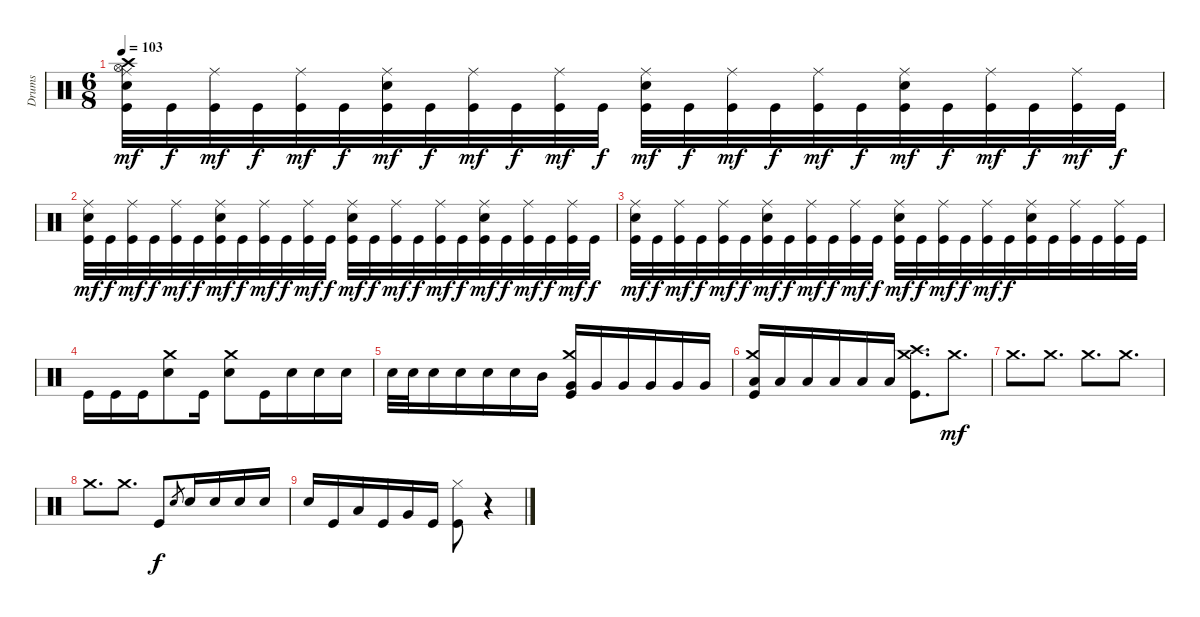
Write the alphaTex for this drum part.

\track ("Drums" "Drums") {instrument percussion}
\staff {score}
\articulation defaults
\ts (6 8)
\tempo 103
\clef neutral
\ks c
("Crash high (hit)" "Hi-Hat (open)" "Ride (middle)" "Electric Snare (hit)" "Kick (hit)").32{dy mf} "Kick (hit)".32{dy f} ("Ride (middle)" "Kick (hit)").32{dy mf} "Kick (hit)".32{dy f} ("Ride (middle)" "Kick (hit)").32{dy mf} "Kick (hit)".32{dy f} ("Ride (middle)" "Electric Snare (hit)" "Kick (hit)").32{dy mf} "Kick (hit)".32{dy f} ("Ride (middle)" "Kick (hit)").32{dy mf} "Kick (hit)".32{dy f} ("Ride (middle)" "Kick (hit)").32{dy mf} "Kick (hit)".32{dy f} ("Ride (middle)" "Electric Snare (hit)" "Kick (hit)").32{dy mf} "Kick (hit)".32{dy f} ("Ride (middle)" "Kick (hit)").32{dy mf} "Kick (hit)".32{dy f} ("Ride (middle)" "Kick (hit)").32{dy mf} "Kick (hit)".32{dy f} ("Ride (middle)" "Electric Snare (hit)" "Kick (hit)").32{dy mf} "Kick (hit)".32{dy f} ("Ride (middle)" "Kick (hit)").32{dy mf} "Kick (hit)".32{dy f} ("Ride (middle)" "Kick (hit)").32{dy mf} "Kick (hit)".32{dy f} |
("Ride (middle)" "Electric Snare (hit)" "Kick (hit)").32{dy mf} "Kick (hit)".32{dy f} ("Ride (middle)" "Kick (hit)").32{dy mf} "Kick (hit)".32{dy f} ("Ride (middle)" "Kick (hit)").32{dy mf} "Kick (hit)".32{dy f} ("Ride (middle)" "Electric Snare (hit)" "Kick (hit)").32{dy mf} "Kick (hit)".32{dy f} ("Ride (middle)" "Kick (hit)").32{dy mf} "Kick (hit)".32{dy f} ("Ride (middle)" "Kick (hit)").32{dy mf} "Kick (hit)".32{dy f} ("Ride (middle)" "Electric Snare (hit)" "Kick (hit)").32{dy mf} "Kick (hit)".32{dy f} ("Ride (middle)" "Kick (hit)").32{dy mf} "Kick (hit)".32{dy f} ("Ride (middle)" "Kick (hit)").32{dy mf} "Kick (hit)".32{dy f} ("Ride (middle)" "Electric Snare (hit)" "Kick (hit)").32{dy mf} "Kick (hit)".32{dy f} ("Ride (middle)" "Kick (hit)").32{dy mf} "Kick (hit)".32{dy f} ("Ride (middle)" "Kick (hit)").32{dy mf} "Kick (hit)".32{dy f} |
("Ride (middle)" "Electric Snare (hit)" "Kick (hit)").32{dy mf} "Kick (hit)".32{dy f} ("Ride (middle)" "Kick (hit)").32{dy mf} "Kick (hit)".32{dy f} ("Ride (middle)" "Kick (hit)").32{dy mf} "Kick (hit)".32{dy f} ("Ride (middle)" "Electric Snare (hit)" "Kick (hit)").32{dy mf} "Kick (hit)".32{dy f} ("Ride (middle)" "Kick (hit)").32{dy mf} "Kick (hit)".32{dy f} ("Ride (middle)" "Kick (hit)").32{dy mf} "Kick (hit)".32{dy f} ("Ride (middle)" "Electric Snare (hit)" "Kick (hit)").32{dy mf} "Kick (hit)".32{dy f} ("Ride (middle)" "Kick (hit)").32{dy mf} "Kick (hit)".32{dy f} ("Ride (middle)" "Kick (hit)").32{dy mf} "Kick (hit)".32{dy f} ("Ride (middle)" "Electric Snare (hit)" "Kick (hit)").32 "Kick (hit)".32 ("Ride (middle)" "Kick (hit)").32 "Kick (hit)".32 ("Ride (middle)" "Kick (hit)").32 "Kick (hit)".32 |
"Kick (hit)".16 "Kick (hit)".16 "Kick (hit)".16 ("Crash medium (hit)" "Electric Snare (hit)").8 "Kick (hit)".16 ("Crash medium (hit)" "Electric Snare (hit)").8 "Kick (hit)".16 "Electric Snare (hit)".16 "Electric Snare (hit)".16 "Electric Snare (hit)".16 |
"Electric Snare (hit)".32 "Electric Snare (hit)".32 "Electric Snare (hit)".16 "Electric Snare (hit)".16 "Electric Snare (hit)".16 "Electric Snare (hit)".16 "Mid Tom (hit)".16 ("Crash medium (hit)" "Very Low Tom (hit)" "Kick (hit)").16 "Very Low Tom (hit)".16 "Very Low Tom (hit)".16 "Very Low Tom (hit)".16 "Very Low Tom (hit)".16 "Very Low Tom (hit)".16 |
("Crash medium (hit)" "Low Floor Tom (hit)" "Kick (hit)").16 "Low Floor Tom (hit)".16 "Low Floor Tom (hit)".16 "Low Floor Tom (hit)".16 "Low Floor Tom (hit)".16 "Low Floor Tom (hit)".16 ("Crash high (hit)" "Crash medium (hit)" "Kick (hit)").8{d} "Crash medium (hit)".8{d dy mf} |
"Crash medium (hit)".8{d} "Crash medium (hit)".8{d} "Crash medium (hit)".8{d} "Crash medium (hit)".8{d} |
"Crash medium (hit)".8{d} "Crash medium (hit)".8{d} "Kick (hit)".8{dy f} "Electric Snare (hit)".8{gr} "Electric Snare (hit)".16 "Electric Snare (hit)".16 "Electric Snare (hit)".16 "Electric Snare (hit)".16 |
"Electric Snare (hit)".16 "Kick (hit)".16 "Low Tom (hit)".16 "Kick (hit)".16 "Very Low Tom (hit)".16 "Kick (hit)".16 ("Hi-Hat (closed)" "Kick (hit)").8 r.4
